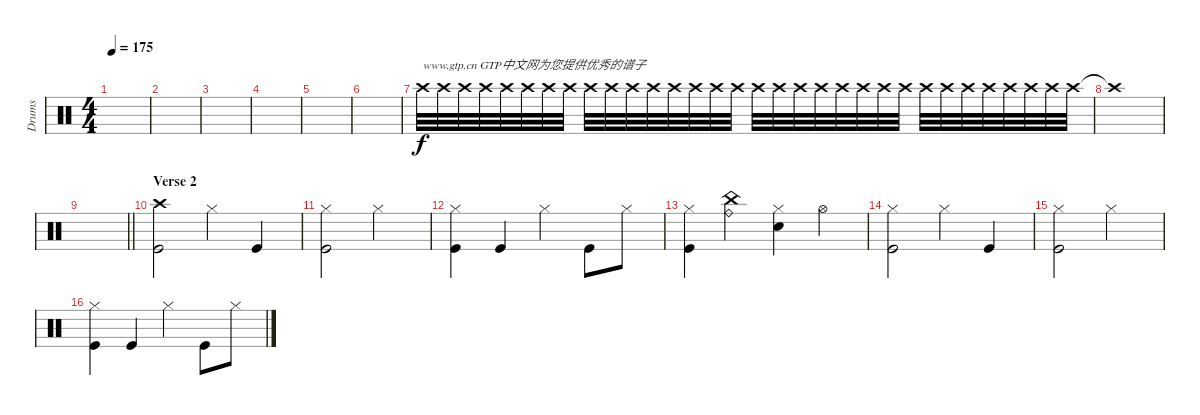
\track ("Drums" "Drums") {instrument percussion}
\staff {score}
\articulation defaults
\ts (4 4)
\tempo 175
\clef neutral
\ks c
|
|
|
|
|
|
"Crash high (hit)".32{txt "www.gtp.cn GTP中文网为您提供优秀的谱子" volume 2} "Crash high (hit)".32{volume 14} "Crash high (hit)".32 "Crash high (hit)".32 "Crash high (hit)".32 "Crash high (hit)".32 "Crash high (hit)".32 "Crash high (hit)".32 "Crash high (hit)".32 "Crash high (hit)".32 "Crash high (hit)".32 "Crash high (hit)".32 "Crash high (hit)".32 "Crash high (hit)".32 "Crash high (hit)".32 "Crash high (hit)".32 "Crash high (hit)".32 "Crash high (hit)".32 "Crash high (hit)".32 "Crash high (hit)".32 "Crash high (hit)".32 "Crash high (hit)".32 "Crash high (hit)".32 "Crash high (hit)".32 "Crash high (hit)".32 "Crash high (hit)".32 "Crash high (hit)".32 "Crash high (hit)".32 "Crash high (hit)".32 "Crash high (hit)".32 "Crash high (hit)".32 "Crash high (hit)".32 |
"Crash high (hit)"{t}.1 |
\barLineRight lightlight
|
\section ("" "Verse 2")
("Crash high (hit)" "Kick (hit)").2 "Hi-Hat (closed)".4 "Kick (hit)".4 |
("Hi-Hat (closed)" "Kick (hit)").2 "Hi-Hat (closed)".2 |
("Hi-Hat (closed)" "Kick (hit)").4 "Kick (hit)".4 "Hi-Hat (closed)".4 "Kick (hit)".8 "Hi-Hat (closed)".8 |
("Hi-Hat (closed)" "Kick (hit)").4 ("China (hit)" "Ride (bell)").4 ("Hi-Hat (closed)" "Electric Snare (hit)").4 "Hi-Hat (open)".4 |
("Hi-Hat (closed)" "Kick (hit)").2 "Hi-Hat (closed)".4 "Kick (hit)".4 |
("Hi-Hat (closed)" "Kick (hit)").2 "Hi-Hat (closed)".2 |
("Hi-Hat (closed)" "Kick (hit)").4 "Kick (hit)".4 "Hi-Hat (closed)".4 "Kick (hit)".8 "Hi-Hat (closed)".8
